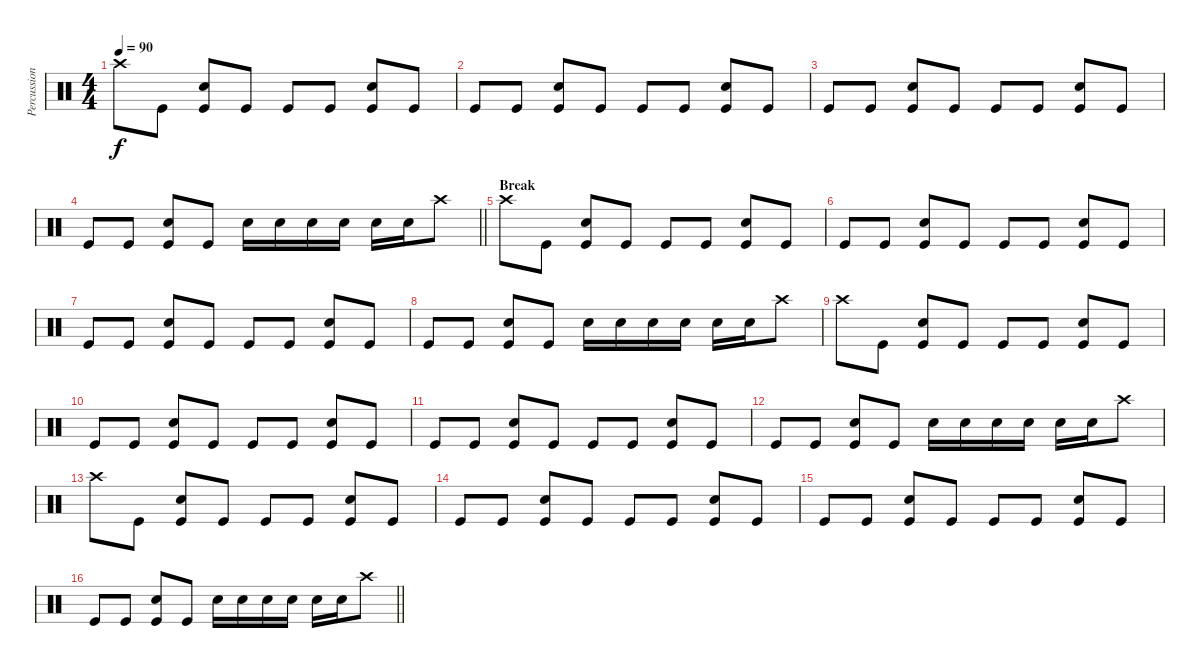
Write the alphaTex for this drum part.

\track ("Percussion" "Percussion") {instrument percussion}
\staff {score}
\articulation defaults
\ts (4 4)
\tempo 90
\clef neutral
\ks c "Crash high (hit)".8{dy f} "Kick (hit)".8
("Kick (hit)" "Snare (hit) 2").8 "Kick (hit)".8 "Kick (hit)".8 "Kick (hit)".8 ("Kick (hit)" "Snare (hit) 2").8 "Kick (hit)".8 |
"Kick (hit)".8 "Kick (hit)".8 ("Kick (hit)" "Snare (hit) 2").8 "Kick (hit)".8 "Kick (hit)".8 "Kick (hit)".8 ("Kick (hit)" "Snare (hit) 2").8 "Kick (hit)".8 |
"Kick (hit)".8 "Kick (hit)".8 ("Kick (hit)" "Snare (hit) 2").8 "Kick (hit)".8 "Kick (hit)".8 "Kick (hit)".8 ("Kick (hit)" "Snare (hit) 2").8 "Kick (hit)".8 |
\barLineRight lightlight "Kick (hit)".8 "Kick (hit)".8
("Kick (hit)" "Snare (hit) 2").8 "Kick (hit)".8 "Snare (hit) 2".16 "Electric Snare (hit)".16 "Snare (hit) 2".16 "Electric Snare (hit)".16 "Snare (hit) 2".16 "Electric Snare (hit)".16 "Crash high (hit)".8 |
\section ("" "Break")
"Crash high (hit)".8 "Kick (hit)".8 ("Kick (hit)" "Snare (hit) 2").8 "Kick (hit)".8 "Kick (hit)".8 "Kick (hit)".8 ("Kick (hit)" "Snare (hit) 2").8 "Kick (hit)".8 |
"Kick (hit)".8 "Kick (hit)".8 ("Kick (hit)" "Snare (hit) 2").8 "Kick (hit)".8 "Kick (hit)".8 "Kick (hit)".8 ("Kick (hit)" "Snare (hit) 2").8 "Kick (hit)".8 |
"Kick (hit)".8 "Kick (hit)".8 ("Kick (hit)" "Snare (hit) 2").8 "Kick (hit)".8 "Kick (hit)".8 "Kick (hit)".8 ("Kick (hit)" "Snare (hit) 2").8 "Kick (hit)".8 |
"Kick (hit)".8 "Kick (hit)".8 ("Kick (hit)" "Snare (hit) 2").8 "Kick (hit)".8 "Snare (hit) 2".16 "Electric Snare (hit)".16 "Snare (hit) 2".16 "Electric Snare (hit)".16 "Snare (hit) 2".16 "Electric Snare (hit)".16 "Crash high (hit)".8 |
"Crash high (hit)".8 "Kick (hit)".8 ("Kick (hit)" "Snare (hit) 2").8 "Kick (hit)".8 "Kick (hit)".8 "Kick (hit)".8 ("Kick (hit)" "Snare (hit) 2").8 "Kick (hit)".8 |
"Kick (hit)".8 "Kick (hit)".8 ("Kick (hit)" "Snare (hit) 2").8 "Kick (hit)".8 "Kick (hit)".8 "Kick (hit)".8 ("Kick (hit)" "Snare (hit) 2").8 "Kick (hit)".8 |
"Kick (hit)".8 "Kick (hit)".8 ("Kick (hit)" "Snare (hit) 2").8 "Kick (hit)".8 "Kick (hit)".8 "Kick (hit)".8 ("Kick (hit)" "Snare (hit) 2").8 "Kick (hit)".8 |
"Kick (hit)".8 "Kick (hit)".8 ("Kick (hit)" "Snare (hit) 2").8 "Kick (hit)".8 "Snare (hit) 2".16 "Electric Snare (hit)".16 "Snare (hit) 2".16 "Electric Snare (hit)".16 "Snare (hit) 2".16 "Electric Snare (hit)".16 "Crash high (hit)".8 |
"Crash high (hit)".8 "Kick (hit)".8 ("Kick (hit)" "Snare (hit) 2").8 "Kick (hit)".8 "Kick (hit)".8 "Kick (hit)".8 ("Kick (hit)" "Snare (hit) 2").8 "Kick (hit)".8 |
"Kick (hit)".8 "Kick (hit)".8 ("Kick (hit)" "Snare (hit) 2").8 "Kick (hit)".8 "Kick (hit)".8 "Kick (hit)".8 ("Kick (hit)" "Snare (hit) 2").8 "Kick (hit)".8 |
"Kick (hit)".8 "Kick (hit)".8 ("Kick (hit)" "Snare (hit) 2").8 "Kick (hit)".8 "Kick (hit)".8 "Kick (hit)".8 ("Kick (hit)" "Snare (hit) 2").8 "Kick (hit)".8 |
\barLineRight lightlight "Kick (hit)".8 "Kick (hit)".8
("Kick (hit)" "Snare (hit) 2").8 "Kick (hit)".8 "Snare (hit) 2".16 "Electric Snare (hit)".16 "Snare (hit) 2".16 "Electric Snare (hit)".16 "Snare (hit) 2".16 "Electric Snare (hit)".16 "Crash high (hit)".8
